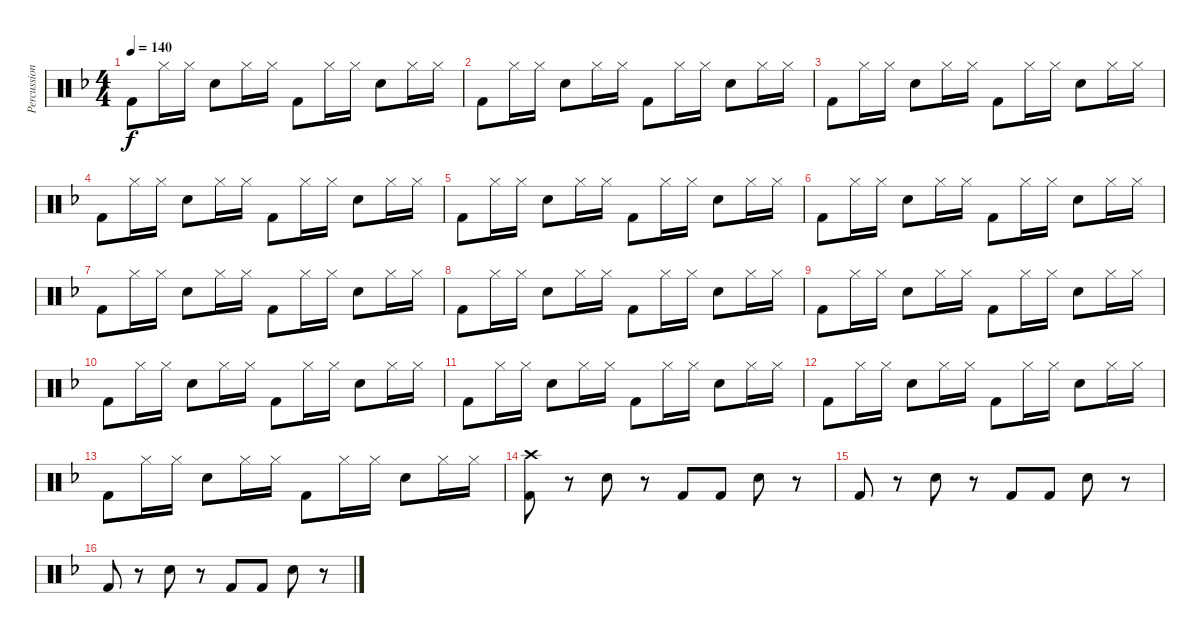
\track ("Percussion" "Percussion") {instrument percussion}
\staff {score}
\articulation defaults
\ts (4 4)
\tempo 140
\clef neutral
\ks dminor "Kick (hit) 2".8{dy f} "Hi-Hat (closed)".16 "Hi-Hat (closed)".16 "Snare (hit) 2".8 "Hi-Hat (closed)".16 "Hi-Hat (closed)".16 "Kick (hit) 2".8 "Hi-Hat (closed)".16 "Hi-Hat (closed)".16 "Snare (hit) 2".8 "Hi-Hat (closed)".16 "Hi-Hat (closed)".16
|
"Kick (hit) 2".8 "Hi-Hat (closed)".16 "Hi-Hat (closed)".16 "Snare (hit) 2".8 "Hi-Hat (closed)".16 "Hi-Hat (closed)".16 "Kick (hit) 2".8 "Hi-Hat (closed)".16 "Hi-Hat (closed)".16 "Snare (hit) 2".8 "Hi-Hat (closed)".16 "Hi-Hat (closed)".16 |
"Kick (hit) 2".8 "Hi-Hat (closed)".16 "Hi-Hat (closed)".16 "Snare (hit) 2".8 "Hi-Hat (closed)".16 "Hi-Hat (closed)".16 "Kick (hit) 2".8 "Hi-Hat (closed)".16 "Hi-Hat (closed)".16 "Snare (hit) 2".8 "Hi-Hat (closed)".16 "Hi-Hat (closed)".16 |
"Kick (hit) 2".8 "Hi-Hat (closed)".16 "Hi-Hat (closed)".16 "Snare (hit) 2".8 "Hi-Hat (closed)".16 "Hi-Hat (closed)".16 "Kick (hit) 2".8 "Hi-Hat (closed)".16 "Hi-Hat (closed)".16 "Snare (hit) 2".8 "Hi-Hat (closed)".16 "Hi-Hat (closed)".16 |
"Kick (hit) 2".8 "Hi-Hat (closed)".16 "Hi-Hat (closed)".16 "Snare (hit) 2".8 "Hi-Hat (closed)".16 "Hi-Hat (closed)".16 "Kick (hit) 2".8 "Hi-Hat (closed)".16 "Hi-Hat (closed)".16 "Snare (hit) 2".8 "Hi-Hat (closed)".16 "Hi-Hat (closed)".16 |
"Kick (hit) 2".8 "Hi-Hat (closed)".16 "Hi-Hat (closed)".16 "Snare (hit) 2".8 "Hi-Hat (closed)".16 "Hi-Hat (closed)".16 "Kick (hit) 2".8 "Hi-Hat (closed)".16 "Hi-Hat (closed)".16 "Snare (hit) 2".8 "Hi-Hat (closed)".16 "Hi-Hat (closed)".16 |
"Kick (hit) 2".8 "Hi-Hat (closed)".16 "Hi-Hat (closed)".16 "Snare (hit) 2".8 "Hi-Hat (closed)".16 "Hi-Hat (closed)".16 "Kick (hit) 2".8 "Hi-Hat (closed)".16 "Hi-Hat (closed)".16 "Snare (hit) 2".8 "Hi-Hat (closed)".16 "Hi-Hat (closed)".16 |
"Kick (hit) 2".8 "Hi-Hat (closed)".16 "Hi-Hat (closed)".16 "Snare (hit) 2".8 "Hi-Hat (closed)".16 "Hi-Hat (closed)".16 "Kick (hit) 2".8 "Hi-Hat (closed)".16 "Hi-Hat (closed)".16 "Snare (hit) 2".8 "Hi-Hat (closed)".16 "Hi-Hat (closed)".16 |
"Kick (hit) 2".8 "Hi-Hat (closed)".16 "Hi-Hat (closed)".16 "Snare (hit) 2".8 "Hi-Hat (closed)".16 "Hi-Hat (closed)".16 "Kick (hit) 2".8 "Hi-Hat (closed)".16 "Hi-Hat (closed)".16 "Snare (hit) 2".8 "Hi-Hat (closed)".16 "Hi-Hat (closed)".16 |
"Kick (hit) 2".8 "Hi-Hat (closed)".16 "Hi-Hat (closed)".16 "Snare (hit) 2".8 "Hi-Hat (closed)".16 "Hi-Hat (closed)".16 "Kick (hit) 2".8 "Hi-Hat (closed)".16 "Hi-Hat (closed)".16 "Snare (hit) 2".8 "Hi-Hat (closed)".16 "Hi-Hat (closed)".16 |
"Kick (hit) 2".8 "Hi-Hat (closed)".16 "Hi-Hat (closed)".16 "Snare (hit) 2".8 "Hi-Hat (closed)".16 "Hi-Hat (closed)".16 "Kick (hit) 2".8 "Hi-Hat (closed)".16 "Hi-Hat (closed)".16 "Snare (hit) 2".8 "Hi-Hat (closed)".16 "Hi-Hat (closed)".16 |
"Kick (hit) 2".8 "Hi-Hat (closed)".16 "Hi-Hat (closed)".16 "Snare (hit) 2".8 "Hi-Hat (closed)".16 "Hi-Hat (closed)".16 "Kick (hit) 2".8 "Hi-Hat (closed)".16 "Hi-Hat (closed)".16 "Snare (hit) 2".8 "Hi-Hat (closed)".16 "Hi-Hat (closed)".16 |
"Kick (hit) 2".8 "Hi-Hat (closed)".16 "Hi-Hat (closed)".16 "Snare (hit) 2".8 "Hi-Hat (closed)".16 "Hi-Hat (closed)".16 "Kick (hit) 2".8 "Hi-Hat (closed)".16 "Hi-Hat (closed)".16 "Snare (hit) 2".8 "Hi-Hat (closed)".16 "Hi-Hat (closed)".16 |
("Crash high (hit)" "Kick (hit) 2").8 r.8 "Snare (hit) 2".8 r.8 "Kick (hit) 2".8 "Kick (hit) 2".8 "Snare (hit) 2".8 r.8 |
"Kick (hit) 2".8 r.8 "Snare (hit) 2".8 r.8 "Kick (hit) 2".8 "Kick (hit) 2".8 "Snare (hit) 2".8 r.8 |
"Kick (hit) 2".8 r.8 "Snare (hit) 2".8 r.8 "Kick (hit) 2".8 "Kick (hit) 2".8 "Snare (hit) 2".8 r.8
